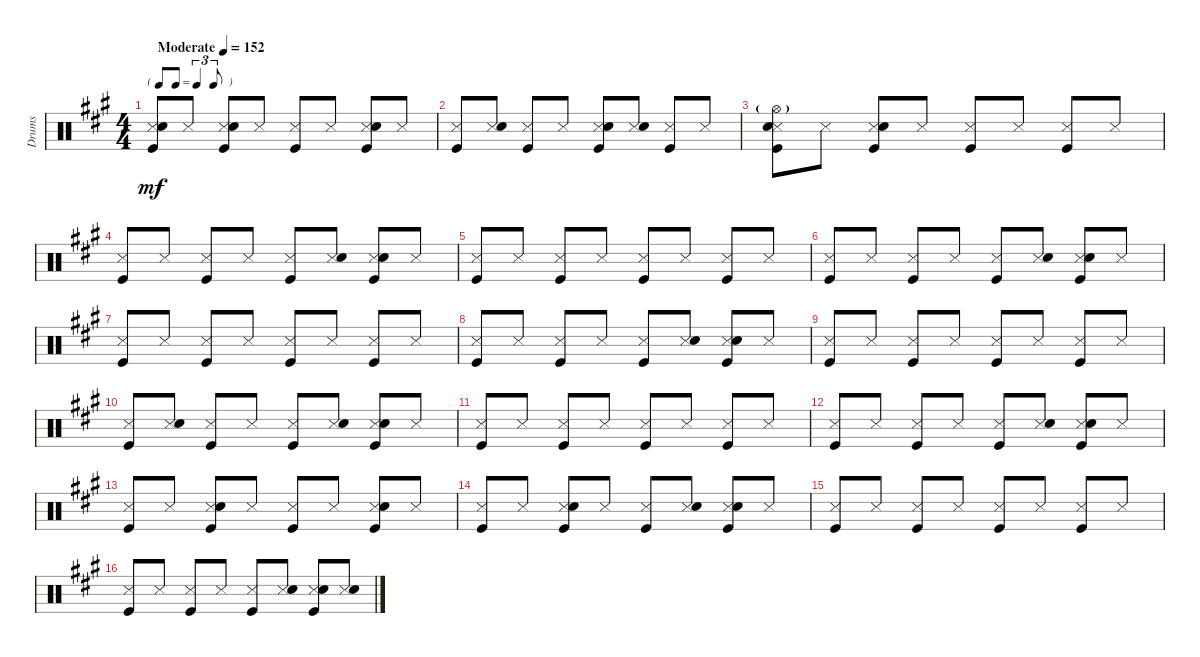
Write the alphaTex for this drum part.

\track ("Drums" "Drums") {instrument percussion}
\staff {score}
\articulation defaults
\ts (4 4)
\tf triplet8th
\tempo (152 "Moderate")
\clef neutral
\ks a
("Snare (side stick) 3" "Snare (hit) 2" "Kick (hit)").8{dy mf} "Snare (side stick) 3".8 ("Snare (side stick) 3" "Snare (hit) 2" "Kick (hit)").8 "Snare (side stick) 3".8 ("Snare (side stick) 3" "Kick (hit)").8 "Snare (side stick) 3".8 ("Snare (side stick) 3" "Snare (hit) 2" "Kick (hit)").8 "Snare (side stick) 3".8 |
("Snare (side stick) 3" "Kick (hit)").8 ("Snare (side stick) 3" "Snare (hit) 2").8 ("Snare (side stick) 3" "Kick (hit)").8 "Snare (side stick) 3".8 ("Snare (side stick) 3" "Snare (hit) 2" "Kick (hit)").8 ("Snare (side stick) 3" "Snare (hit) 2").8 ("Snare (side stick) 3" "Kick (hit)").8 "Snare (side stick) 3".8 |
("Hi-Hat (open)"{g} "Snare (side stick) 3" "Snare (hit) 2" "Kick (hit)").8 "Snare (side stick) 3".8 ("Snare (side stick) 3" "Snare (hit) 2" "Kick (hit)").8 "Snare (side stick) 3".8 ("Snare (side stick) 3" "Kick (hit)").8 "Snare (side stick) 3".8 ("Snare (side stick) 3" "Kick (hit)").8 "Snare (side stick) 3".8 |
("Snare (side stick) 3" "Kick (hit)").8 "Snare (side stick) 3".8 ("Snare (side stick) 3" "Kick (hit)").8 "Snare (side stick) 3".8 ("Snare (side stick) 3" "Kick (hit)").8 ("Snare (side stick) 3" "Snare (hit) 2").8 ("Snare (side stick) 3" "Snare (hit) 2" "Kick (hit)").8 "Snare (side stick) 3".8 |
("Snare (side stick) 3" "Kick (hit)").8 "Snare (side stick) 3".8 ("Snare (side stick) 3" "Kick (hit)").8 "Snare (side stick) 3".8 ("Snare (side stick) 3" "Kick (hit)").8 "Snare (side stick) 3".8 ("Snare (side stick) 3" "Kick (hit)").8 "Snare (side stick) 3".8 |
("Snare (side stick) 3" "Kick (hit)").8 "Snare (side stick) 3".8 ("Snare (side stick) 3" "Kick (hit)").8 "Snare (side stick) 3".8 ("Snare (side stick) 3" "Kick (hit)").8 ("Snare (side stick) 3" "Snare (hit) 2").8 ("Snare (side stick) 3" "Snare (hit) 2" "Kick (hit)").8 "Snare (side stick) 3".8 |
("Snare (side stick) 3" "Kick (hit)").8 "Snare (side stick) 3".8 ("Snare (side stick) 3" "Kick (hit)").8 "Snare (side stick) 3".8 ("Snare (side stick) 3" "Kick (hit)").8 "Snare (side stick) 3".8 ("Snare (side stick) 3" "Kick (hit)").8 "Snare (side stick) 3".8 |
("Snare (side stick) 3" "Kick (hit)").8 "Snare (side stick) 3".8 ("Snare (side stick) 3" "Kick (hit)").8 "Snare (side stick) 3".8 ("Snare (side stick) 3" "Kick (hit)").8 ("Snare (side stick) 3" "Snare (hit) 2").8 ("Snare (side stick) 3" "Snare (hit) 2" "Kick (hit)").8 "Snare (side stick) 3".8 |
("Snare (side stick) 3" "Kick (hit)").8 "Snare (side stick) 3".8 ("Snare (side stick) 3" "Kick (hit)").8 "Snare (side stick) 3".8 ("Snare (side stick) 3" "Kick (hit)").8 "Snare (side stick) 3".8 ("Snare (side stick) 3" "Kick (hit)").8 "Snare (side stick) 3".8 |
("Snare (side stick) 3" "Kick (hit)").8 ("Snare (side stick) 3" "Snare (hit) 2").8 ("Snare (side stick) 3" "Kick (hit)").8 "Snare (side stick) 3".8 ("Snare (side stick) 3" "Kick (hit)").8 ("Snare (side stick) 3" "Snare (hit) 2").8 ("Snare (side stick) 3" "Snare (hit) 2" "Kick (hit)").8 "Snare (side stick) 3".8 |
("Snare (side stick) 3" "Kick (hit)").8 "Snare (side stick) 3".8 ("Snare (side stick) 3" "Kick (hit)").8 "Snare (side stick) 3".8 ("Snare (side stick) 3" "Kick (hit)").8 "Snare (side stick) 3".8 ("Snare (side stick) 3" "Kick (hit)").8 "Snare (side stick) 3".8 |
("Snare (side stick) 3" "Kick (hit)").8 "Snare (side stick) 3".8 ("Snare (side stick) 3" "Kick (hit)").8 "Snare (side stick) 3".8 ("Snare (side stick) 3" "Kick (hit)").8 ("Snare (side stick) 3" "Snare (hit) 2").8 ("Snare (side stick) 3" "Snare (hit) 2" "Kick (hit)").8 "Snare (side stick) 3".8 |
("Snare (side stick) 3" "Kick (hit)").8 "Snare (side stick) 3".8 ("Snare (side stick) 3" "Snare (hit) 2" "Kick (hit)").8 "Snare (side stick) 3".8 ("Snare (side stick) 3" "Kick (hit)").8 "Snare (side stick) 3".8 ("Snare (side stick) 3" "Snare (hit) 2" "Kick (hit)").8 "Snare (side stick) 3".8 |
("Snare (side stick) 3" "Kick (hit)").8 "Snare (side stick) 3".8 ("Snare (side stick) 3" "Snare (hit) 2" "Kick (hit)").8 "Snare (side stick) 3".8 ("Snare (side stick) 3" "Kick (hit)").8 ("Snare (side stick) 3" "Snare (hit) 2").8 ("Snare (side stick) 3" "Snare (hit) 2" "Kick (hit)").8 "Snare (side stick) 3".8 |
("Snare (side stick) 3" "Kick (hit)").8 "Snare (side stick) 3".8 ("Snare (side stick) 3" "Kick (hit)").8 "Snare (side stick) 3".8 ("Snare (side stick) 3" "Kick (hit)").8 "Snare (side stick) 3".8 ("Snare (side stick) 3" "Kick (hit)").8 "Snare (side stick) 3".8 |
("Snare (side stick) 3" "Kick (hit)").8 "Snare (side stick) 3".8 ("Snare (side stick) 3" "Kick (hit)").8 "Snare (side stick) 3".8 ("Snare (side stick) 3" "Kick (hit)").8 ("Snare (side stick) 3" "Snare (hit) 2").8 ("Snare (side stick) 3" "Snare (hit) 2" "Kick (hit)").8 ("Snare (side stick) 3" "Snare (hit) 2").8
